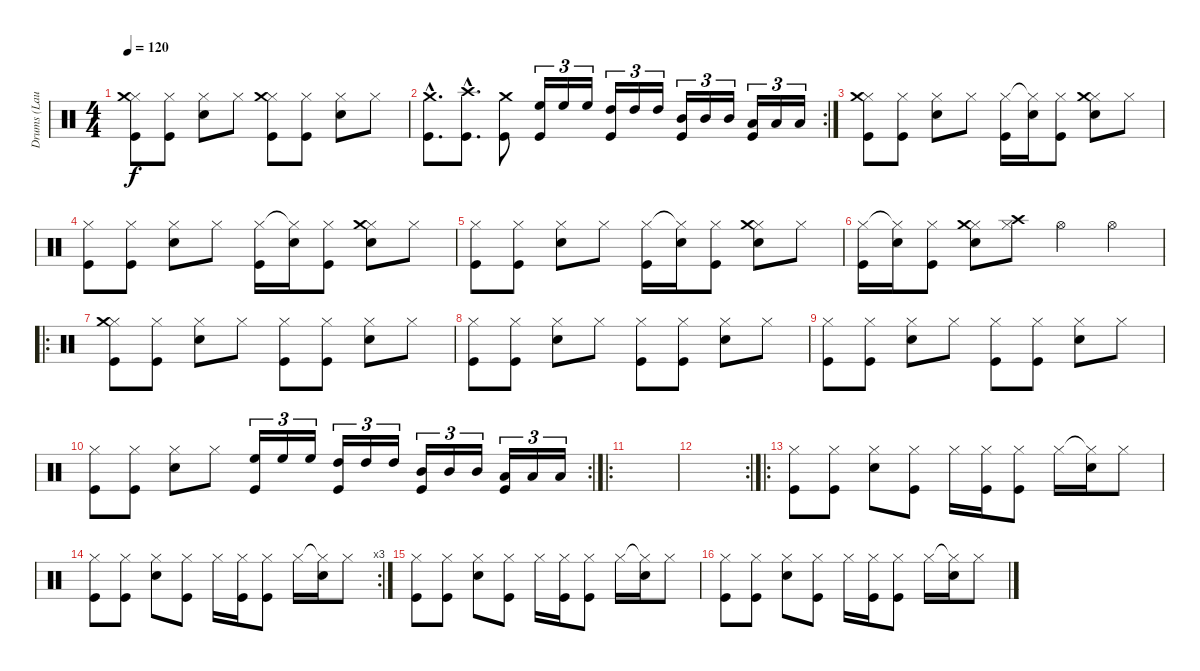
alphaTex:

\track ("Drums (Laurent)" "Drums (Lau") {instrument percussion}
\staff {score}
\articulation defaults
\ts (4 4)
\tempo 120
\clef neutral
\ks c
("Hi-Hat (closed)" "Crash medium (hit)" "Kick (hit)").8{dy f} ("Hi-Hat (closed)" "Kick (hit)").8 ("Hi-Hat (closed)" "Electric Snare (hit)").8 "Hi-Hat (closed)".8 ("Hi-Hat (closed)" "Crash medium (hit)" "Kick (hit)").8 ("Hi-Hat (closed)" "Kick (hit)").8 ("Hi-Hat (closed)" "Electric Snare (hit)").8 "Hi-Hat (closed)".8 |
\rc 2
("Crash medium (hit)"{hac} "Kick (hit)"{hac}).8{d} ("Crash high (hit)"{hac} "Kick (hit)"{hac}).8{d} ("Crash medium (hit)" "Kick (hit)").8 ("High Floor Tom (hit)" "Kick (hit)").16{tu (3 2)} "High Floor Tom (hit)".16{tu (3 2)} "High Floor Tom (hit)".16{tu (3 2)} ("High Tom (hit)" "Kick (hit)").16{tu (3 2)} "High Tom (hit)".16{tu (3 2)} "High Tom (hit)".16{tu (3 2)} ("Mid Tom (hit)" "Kick (hit)").16{tu (3 2)} "Mid Tom (hit)".16{tu (3 2)} "Mid Tom (hit)".16{tu (3 2)} ("Low Tom (hit)" "Kick (hit)").16{tu (3 2)} "Low Tom (hit)".16{tu (3 2)} "Low Tom (hit)".16{tu (3 2)} |
("Hi-Hat (closed)" "Crash medium (hit)" "Kick (hit)").8 ("Hi-Hat (closed)" "Kick (hit)").8 ("Hi-Hat (closed)" "Electric Snare (hit)").8 "Hi-Hat (closed)".8 ("Hi-Hat (closed)" "Kick (hit)").16 ("Hi-Hat (closed)"{t} "Electric Snare (hit)").16 ("Hi-Hat (closed)" "Kick (hit)").8 ("Hi-Hat (closed)" "Crash medium (hit)" "Electric Snare (hit)").8 "Hi-Hat (closed)".8 |
("Hi-Hat (closed)" "Kick (hit)").8 ("Hi-Hat (closed)" "Kick (hit)").8 ("Hi-Hat (closed)" "Electric Snare (hit)").8 "Hi-Hat (closed)".8 ("Hi-Hat (closed)" "Kick (hit)").16 ("Hi-Hat (closed)"{t} "Electric Snare (hit)").16 ("Hi-Hat (closed)" "Kick (hit)").8 ("Hi-Hat (closed)" "Crash medium (hit)" "Electric Snare (hit)").8 "Hi-Hat (closed)".8 |
("Hi-Hat (closed)" "Kick (hit)").8 ("Hi-Hat (closed)" "Kick (hit)").8 ("Hi-Hat (closed)" "Electric Snare (hit)").8 "Hi-Hat (closed)".8 ("Hi-Hat (closed)" "Kick (hit)").16 ("Hi-Hat (closed)"{t} "Electric Snare (hit)").16 ("Hi-Hat (closed)" "Kick (hit)").8 ("Hi-Hat (closed)" "Crash medium (hit)" "Electric Snare (hit)").8 "Hi-Hat (closed)".8 |
("Hi-Hat (closed)" "Kick (hit)").16 ("Hi-Hat (closed)"{t} "Electric Snare (hit)").16 ("Hi-Hat (closed)" "Kick (hit)").8 ("Hi-Hat (closed)" "Crash medium (hit)" "Electric Snare (hit)").8 ("Hi-Hat (closed)" "Crash high (hit)").8 "Hi-Hat (open)".4 "Hi-Hat (open)".4 |
\ro
("Hi-Hat (closed)" "Crash medium (hit)" "Kick (hit)").8 ("Hi-Hat (closed)" "Kick (hit)").8 ("Hi-Hat (closed)" "Electric Snare (hit)").8 "Hi-Hat (closed)".8 ("Hi-Hat (closed)" "Kick (hit)").8 ("Hi-Hat (closed)" "Kick (hit)").8 ("Hi-Hat (closed)" "Electric Snare (hit)").8 "Hi-Hat (closed)".8 |
("Hi-Hat (closed)" "Kick (hit)").8 ("Hi-Hat (closed)" "Kick (hit)").8 ("Hi-Hat (closed)" "Electric Snare (hit)").8 "Hi-Hat (closed)".8 ("Hi-Hat (closed)" "Kick (hit)").8 ("Hi-Hat (closed)" "Kick (hit)").8 ("Hi-Hat (closed)" "Electric Snare (hit)").8 "Hi-Hat (closed)".8 |
("Hi-Hat (closed)" "Kick (hit)").8 ("Hi-Hat (closed)" "Kick (hit)").8 ("Hi-Hat (closed)" "Electric Snare (hit)").8 "Hi-Hat (closed)".8 ("Hi-Hat (closed)" "Kick (hit)").8 ("Hi-Hat (closed)" "Kick (hit)").8 ("Hi-Hat (closed)" "Electric Snare (hit)").8 "Hi-Hat (closed)".8 |
\rc 2
("Hi-Hat (closed)" "Kick (hit)").8 ("Hi-Hat (closed)" "Kick (hit)").8 ("Hi-Hat (closed)" "Electric Snare (hit)").8 "Hi-Hat (closed)".8 ("High Floor Tom (hit)" "Kick (hit)").16{tu (3 2)} "High Floor Tom (hit)".16{tu (3 2)} "High Floor Tom (hit)".16{tu (3 2)} ("High Tom (hit)" "Kick (hit)").16{tu (3 2)} "High Tom (hit)".16{tu (3 2)} "High Tom (hit)".16{tu (3 2)} ("Mid Tom (hit)" "Kick (hit)").16{tu (3 2)} "Mid Tom (hit)".16{tu (3 2)} "Mid Tom (hit)".16{tu (3 2)} ("Low Tom (hit)" "Kick (hit)").16{tu (3 2)} "Low Tom (hit)".16{tu (3 2)} "Low Tom (hit)".16{tu (3 2)} |
\ro
|
\rc 2
|
\ro
("Hi-Hat (closed)" "Kick (hit)").8 ("Hi-Hat (closed)" "Kick (hit)").8 ("Hi-Hat (closed)" "Electric Snare (hit)").8 ("Hi-Hat (closed)" "Kick (hit)").8 "Hi-Hat (closed)".16 ("Hi-Hat (closed)" "Kick (hit)").16 ("Hi-Hat (closed)" "Kick (hit)").8 "Hi-Hat (closed)".16 ("Hi-Hat (closed)"{t} "Electric Snare (hit)").16 "Hi-Hat (closed)".8 |
\rc 3
("Hi-Hat (closed)" "Kick (hit)").8 ("Hi-Hat (closed)" "Kick (hit)").8 ("Hi-Hat (closed)" "Electric Snare (hit)").8 ("Hi-Hat (closed)" "Kick (hit)").8 "Hi-Hat (closed)".16 ("Hi-Hat (closed)" "Kick (hit)").16 ("Hi-Hat (closed)" "Kick (hit)").8 "Hi-Hat (closed)".16 ("Hi-Hat (closed)"{t} "Electric Snare (hit)").16 "Hi-Hat (closed)".8 |
("Hi-Hat (closed)" "Kick (hit)").8 ("Hi-Hat (closed)" "Kick (hit)").8 ("Hi-Hat (closed)" "Electric Snare (hit)").8 ("Hi-Hat (closed)" "Kick (hit)").8 "Hi-Hat (closed)".16 ("Hi-Hat (closed)" "Kick (hit)").16 ("Hi-Hat (closed)" "Kick (hit)").8 "Hi-Hat (closed)".16 ("Hi-Hat (closed)"{t} "Electric Snare (hit)").16 "Hi-Hat (closed)".8 |
("Hi-Hat (closed)" "Kick (hit)").8 ("Hi-Hat (closed)" "Kick (hit)").8 ("Hi-Hat (closed)" "Electric Snare (hit)").8 ("Hi-Hat (closed)" "Kick (hit)").8 "Hi-Hat (closed)".16 ("Hi-Hat (closed)" "Kick (hit)").16 ("Hi-Hat (closed)" "Kick (hit)").8 "Hi-Hat (closed)".16 ("Hi-Hat (closed)"{t} "Electric Snare (hit)").16 "Hi-Hat (closed)".8
